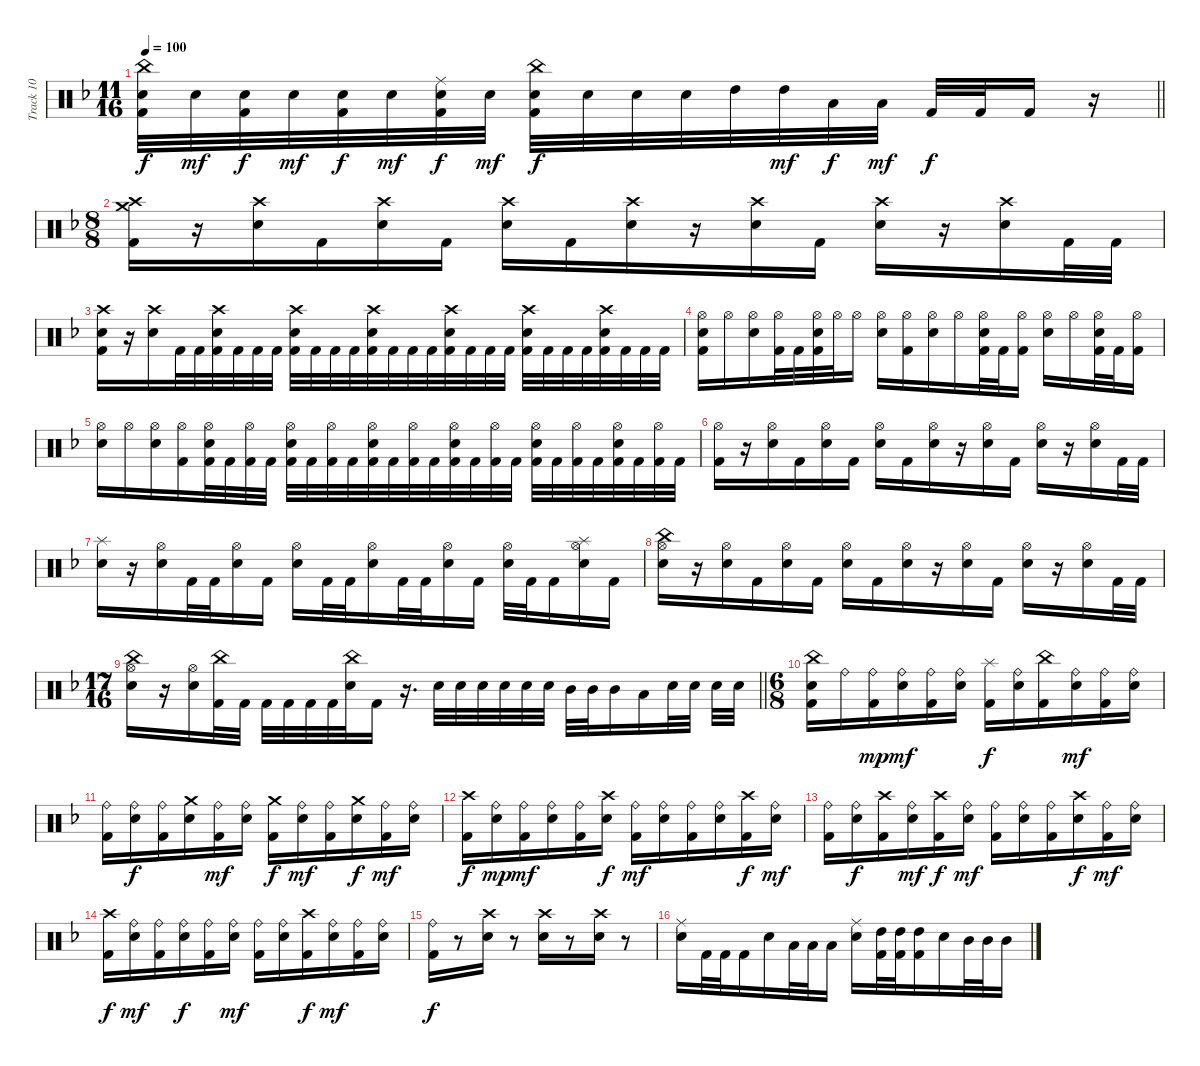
\track ("Track 10" "Track 10") {instrument percussion}
\staff {score}
\articulation defaults
\ts (11 16)
\tempo 100
\clef neutral
\barLineRight lightlight
\ks f
("Kick (hit) 2" "Snare (hit) 2" "China (hit)").32{dy f} "Snare (hit) 2".32{dy mf} ("Kick (hit) 2" "Snare (hit) 2").32{dy f} "Snare (hit) 2".32{dy mf} ("Kick (hit) 2" "Snare (hit) 2").32{dy f} "Snare (hit) 2".32{dy mf} ("Kick (hit) 2" "Snare (hit) 2" "Ride (middle)").32{dy f} "Snare (hit) 2".32{dy mf} ("Kick (hit) 2" "Snare (hit) 2" "China (hit)").32{dy f} "Snare (hit) 2".32 "Snare (hit) 2".32 "Snare (hit) 2".32 "High Tom (hit)".32 "High Tom (hit)".32{dy mf} "Low Floor Tom (hit)".32{dy f} "Low Floor Tom (hit)".32{dy mf} "Kick (hit) 2".32{dy f} "Kick (hit) 2".32 "Kick (hit) 2".16 r.16 |
\ts (8 8)
("Kick (hit) 2" "Crash high (hit)" "Crash medium (hit)").16 r.16 ("Snare (hit) 2" "Crash high (hit)").16 "Kick (hit) 2".16 ("Snare (hit) 2" "Crash high (hit)").16 "Kick (hit) 2".16 ("Snare (hit) 2" "Crash high (hit)").16 "Kick (hit) 2".16 ("Snare (hit) 2" "Crash high (hit)").16 r.16 ("Snare (hit) 2" "Crash high (hit)").16 "Kick (hit) 2".16 ("Snare (hit) 2" "Crash high (hit)").16 r.16 ("Snare (hit) 2" "Crash high (hit)").16 "Kick (hit) 2".32 "Kick (hit) 2".32 |
("Kick (hit) 2" "Snare (hit) 2" "Crash high (hit)").16 r.16 ("Snare (hit) 2" "Crash high (hit)").16 "Kick (hit) 2".32 "Kick (hit) 2".32 ("Kick (hit) 2" "Snare (hit) 2" "Crash high (hit)").32 "Kick (hit) 2".32 "Kick (hit) 2".32 "Kick (hit) 2".32 ("Kick (hit) 2" "Snare (hit) 2" "Crash high (hit)").32 "Kick (hit) 2".32 "Kick (hit) 2".32 "Kick (hit) 2".32 ("Kick (hit) 2" "Snare (hit) 2" "Crash high (hit)").32 "Kick (hit) 2".32 "Kick (hit) 2".32 "Kick (hit) 2".32 ("Kick (hit) 2" "Snare (hit) 2" "Crash high (hit)").32 "Kick (hit) 2".32 "Kick (hit) 2".32 "Kick (hit) 2".32 ("Kick (hit) 2" "Snare (hit) 2" "Crash high (hit)").32 "Kick (hit) 2".32 "Kick (hit) 2".32 "Kick (hit) 2".32 ("Kick (hit) 2" "Snare (hit) 2" "Crash high (hit)").32 "Kick (hit) 2".32 "Kick (hit) 2".32 "Kick (hit) 2".32 |
("Kick (hit) 2" "Snare (hit) 2" "Hi-Hat (open)").16 "Hi-Hat (open)".16 ("Snare (hit) 2" "Hi-Hat (open)").16 ("Kick (hit) 2" "Hi-Hat (open)").32 "Kick (hit) 2".32 ("Kick (hit) 2" "Snare (hit) 2" "Hi-Hat (open)").32 "Hi-Hat (open)".32 "Hi-Hat (open)".16 ("Snare (hit) 2" "Hi-Hat (open)").16 ("Kick (hit) 2" "Hi-Hat (open)").16 ("Snare (hit) 2" "Hi-Hat (open)").16 "Hi-Hat (open)".16 ("Kick (hit) 2" "Snare (hit) 2" "Hi-Hat (open)").32 "Kick (hit) 2".32 ("Kick (hit) 2" "Hi-Hat (open)").16 ("Snare (hit) 2" "Hi-Hat (open)").16 "Hi-Hat (open)".16 ("Kick (hit) 2" "Snare (hit) 2" "Hi-Hat (open)").32 "Kick (hit) 2".32 ("Kick (hit) 2" "Hi-Hat (open)").16 |
("Snare (hit) 2" "Hi-Hat (open)").16 "Hi-Hat (open)".16 ("Snare (hit) 2" "Hi-Hat (open)").16 ("Kick (hit) 2" "Hi-Hat (open)").16 ("Kick (hit) 2" "Snare (hit) 2" "Hi-Hat (open)").32 "Kick (hit) 2".32 ("Kick (hit) 2" "Hi-Hat (open)").32 "Kick (hit) 2".32 ("Kick (hit) 2" "Snare (hit) 2" "Hi-Hat (open)").32 "Kick (hit) 2".32 ("Kick (hit) 2" "Hi-Hat (open)").32 "Kick (hit) 2".32 ("Kick (hit) 2" "Snare (hit) 2" "Hi-Hat (open)").32 "Kick (hit) 2".32 ("Kick (hit) 2" "Hi-Hat (open)").32 "Kick (hit) 2".32 ("Kick (hit) 2" "Snare (hit) 2" "Hi-Hat (open)").32 "Kick (hit) 2".32 ("Kick (hit) 2" "Hi-Hat (open)").32 "Kick (hit) 2".32 ("Kick (hit) 2" "Snare (hit) 2" "Hi-Hat (open)").32 "Kick (hit) 2".32 ("Kick (hit) 2" "Hi-Hat (open)").32 "Kick (hit) 2".32 ("Kick (hit) 2" "Snare (hit) 2" "Hi-Hat (open)").32 "Kick (hit) 2".32 ("Kick (hit) 2" "Hi-Hat (open)").32 "Kick (hit) 2".32 |
("Kick (hit) 2" "Hi-Hat (open)").16 r.16 ("Snare (hit) 2" "Hi-Hat (open)").16 "Kick (hit) 2".16 ("Snare (hit) 2" "Hi-Hat (open)").16 "Kick (hit) 2".16 ("Snare (hit) 2" "Hi-Hat (open)").16 "Kick (hit) 2".16 ("Snare (hit) 2" "Hi-Hat (open)").16 r.16 ("Snare (hit) 2" "Hi-Hat (open)").16 "Kick (hit) 2".16 ("Snare (hit) 2" "Hi-Hat (open)").16 r.16 ("Snare (hit) 2" "Hi-Hat (open)").16 "Kick (hit) 2".32 "Kick (hit) 2".32 |
("Snare (hit) 2" "Splash (hit)").16 r.16 ("Snare (hit) 2" "Hi-Hat (open)").16 "Kick (hit) 2".32 "Kick (hit) 2".32 ("Snare (hit) 2" "Hi-Hat (open)").16 "Kick (hit) 2".16 ("Snare (hit) 2" "Hi-Hat (open)").16 "Kick (hit) 2".32 "Kick (hit) 2".32 ("Snare (hit) 2" "Hi-Hat (open)").16 "Kick (hit) 2".32 "Kick (hit) 2".32 ("Snare (hit) 2" "Hi-Hat (open)").16 "Kick (hit) 2".16 ("Snare (hit) 2" "Hi-Hat (open)").32 "Kick (hit) 2".32 "Kick (hit) 2".16 ("Snare (hit) 2" "Hi-Hat (open)" "Splash (hit)").16 "Kick (hit) 2".16 |
("Snare (hit) 2" "Hi-Hat (open)" "China (hit)").16 r.16 ("Snare (hit) 2" "Hi-Hat (open)").16 "Kick (hit) 2".16 ("Snare (hit) 2" "Hi-Hat (open)").16 "Kick (hit) 2".16 ("Snare (hit) 2" "Hi-Hat (open)").16 "Kick (hit) 2".16 ("Snare (hit) 2" "Hi-Hat (open)").16 r.16 ("Snare (hit) 2" "Hi-Hat (open)").16 "Kick (hit) 2".16 ("Snare (hit) 2" "Hi-Hat (open)").16 r.16 ("Snare (hit) 2" "Hi-Hat (open)").16 "Kick (hit) 2".32 "Kick (hit) 2".32 |
\ts (17 16)
\barLineRight lightlight
("Snare (hit) 2" "Hi-Hat (open)" "China (hit)").16 r.16 ("Snare (hit) 2" "Hi-Hat (open)").16 ("Kick (hit) 2" "China (hit)").32 "Kick (hit) 2".32 "Kick (hit) 2".32 "Kick (hit) 2".32 "Kick (hit) 2".32 "Kick (hit) 2".32 ("Snare (hit) 2" "China (hit)").32 "Kick (hit) 2".16 r.16{d} "Snare (hit) 2".32 "Snare (hit) 2".32 "Snare (hit) 2".32 "Snare (hit) 2".32 "Snare (hit) 2".32 "Snare (hit) 2".32 "Mid Tom (hit)".32 "Mid Tom (hit)".32 "Mid Tom (hit)".16 "Low Floor Tom (hit)".16 "Snare (hit) 2".32 "Snare (hit) 2".32 "Snare (hit) 2".32 "Snare (hit) 2".32 |
\ts (6 8)
("Kick (hit) 2" "Snare (hit) 2" "China (hit)").16 "Ride (bell)".16 ("Kick (hit) 2" "Ride (bell)").16{dy mp} ("Snare (hit) 2" "Ride (bell)").16{dy mf} ("Kick (hit) 2" "Ride (bell)").16 ("Snare (hit) 2" "Ride (bell)").16 ("Kick (hit) 2" "Splash (hit)").16{dy f} ("Snare (hit) 2" "Ride (bell)").16 ("Kick (hit) 2" "China (hit)").16 ("Snare (hit) 2" "Ride (bell)").16{dy mf} ("Kick (hit) 2" "Ride (bell)").16 ("Snare (hit) 2" "Ride (bell)").16 |
("Kick (hit) 2" "Ride (bell)").16 ("Snare (hit) 2" "Ride (bell)").16{dy f} ("Kick (hit) 2" "Ride (bell)").16 ("Snare (hit) 2" "Crash medium (hit)").16 ("Kick (hit) 2" "Ride (bell)").16{dy mf} ("Snare (hit) 2" "Ride (bell)").16 ("Kick (hit) 2" "Crash medium (hit)").16{dy f} ("Snare (hit) 2" "Ride (bell)").16{dy mf} ("Kick (hit) 2" "Ride (bell)").16 ("Snare (hit) 2" "Crash medium (hit)").16{dy f} ("Kick (hit) 2" "Ride (bell)").16{dy mf} ("Snare (hit) 2" "Ride (bell)").16 |
("Kick (hit) 2" "Crash high (hit)").16{dy f} ("Snare (hit) 2" "Ride (bell)").16{dy mp} ("Kick (hit) 2" "Ride (bell)").16{dy mf} ("Snare (hit) 2" "Ride (bell)").16 ("Kick (hit) 2" "Ride (bell)").16 ("Snare (hit) 2" "Crash high (hit)").16{dy f} ("Kick (hit) 2" "Ride (bell)").16{dy mf} ("Snare (hit) 2" "Ride (bell)").16 ("Kick (hit) 2" "Ride (bell)").16 ("Snare (hit) 2" "Ride (bell)").16 ("Kick (hit) 2" "Crash high (hit)").16{dy f} ("Snare (hit) 2" "Ride (bell)").16{dy mf} |
("Kick (hit) 2" "Ride (bell)").16 ("Snare (hit) 2" "Ride (bell)").16{dy f} ("Kick (hit) 2" "Crash high (hit)").16 ("Snare (hit) 2" "Ride (bell)").16{dy mf} ("Kick (hit) 2" "Crash high (hit)").16{dy f} ("Snare (hit) 2" "Ride (bell)").16{dy mf} ("Kick (hit) 2" "Ride (bell)").16 ("Snare (hit) 2" "Ride (bell)").16 ("Kick (hit) 2" "Ride (bell)").16 ("Snare (hit) 2" "Crash high (hit)").16{dy f} ("Kick (hit) 2" "Ride (bell)").16{dy mf} ("Snare (hit) 2" "Ride (bell)").16 |
("Kick (hit) 2" "Crash high (hit)").16{dy f} ("Snare (hit) 2" "Ride (bell)").16{dy mf} ("Kick (hit) 2" "Ride (bell)").16 ("Snare (hit) 2" "Ride (bell)").16{dy f} ("Kick (hit) 2" "Ride (bell)").16 ("Snare (hit) 2" "Ride (bell)").16{dy mf} ("Kick (hit) 2" "Ride (bell)").16 ("Snare (hit) 2" "Ride (bell)").16 ("Kick (hit) 2" "Crash high (hit)").16{dy f} ("Snare (hit) 2" "Ride (bell)").16{dy mf} ("Kick (hit) 2" "Ride (bell)").16 ("Snare (hit) 2" "Ride (bell)").16 |
("Kick (hit) 2" "Ride (bell)").16{dy f} r.8 ("Snare (hit) 2" "Crash high (hit)").16 r.8 ("Snare (hit) 2" "Crash high (hit)").16 r.8 ("Snare (hit) 2" "Crash high (hit)").16 r.8 |
("Snare (hit) 2" "Ride (middle)").16 "Kick (hit) 2".32 "Kick (hit) 2".32 "Kick (hit) 2".16 "Snare (hit) 2".16 "Low Floor Tom (hit)".32 "Low Floor Tom (hit)".32 "Low Floor Tom (hit)".16 ("Snare (hit) 2" "Ride (middle)").16 ("Kick (hit) 2" "High Tom (hit)").32 ("Kick (hit) 2" "High Tom (hit)").32 ("Kick (hit) 2" "High Tom (hit)").16 "Snare (hit) 2".16 "Mid Tom (hit)".32 "Mid Tom (hit)".32 "Mid Tom (hit)".16
